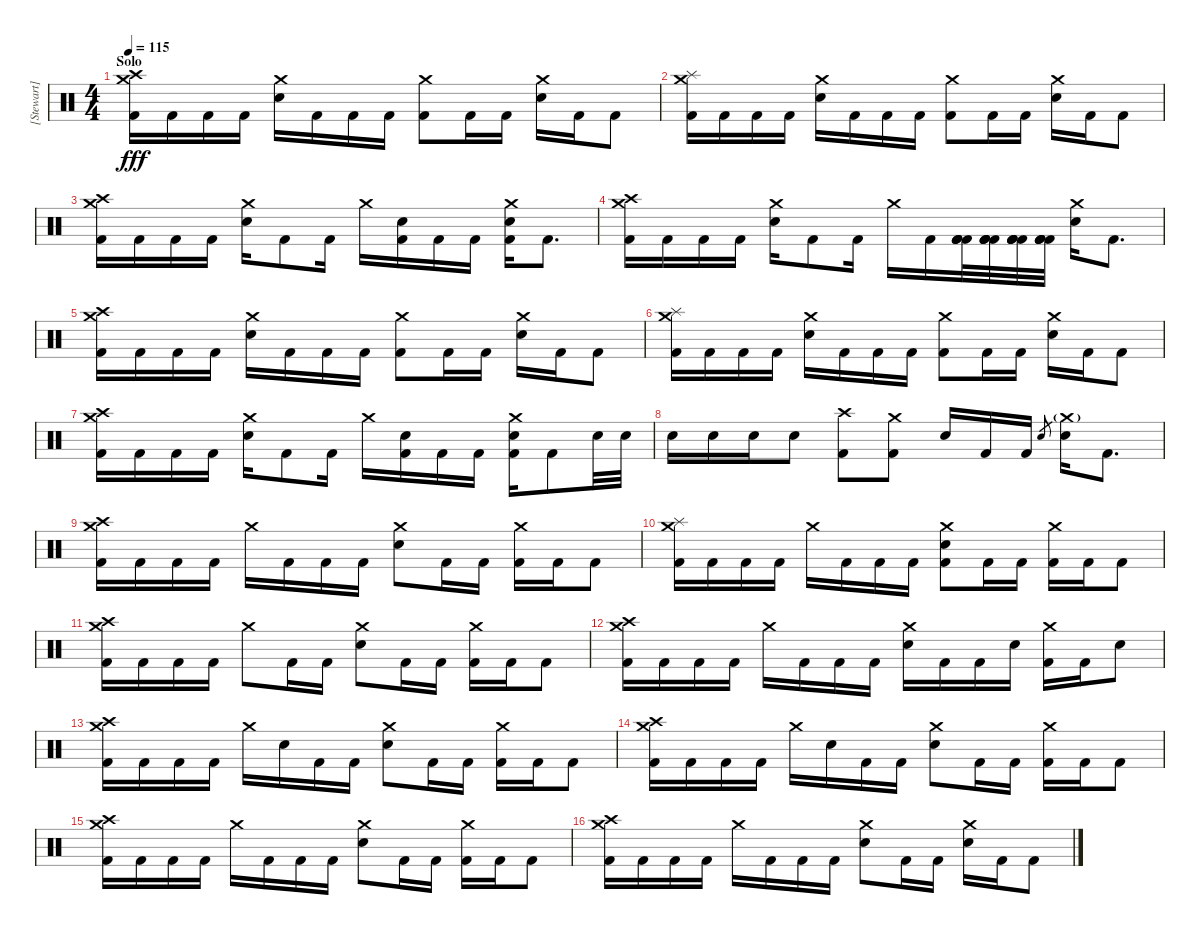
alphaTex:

\track ("[Stewart] Drums" "[Stewart] ") {instrument percussion}
\staff {score}
\articulation defaults
\ts (4 4)
\section ("" "Solo ")
\tempo 115
\clef neutral
\ks c
("Crash medium (hit)" "Crash high (hit)" "Kick (hit) 2").16{dy fff} "Kick (hit) 2".16 "Kick (hit) 2".16 "Kick (hit) 2".16 ("Crash medium (hit)" "Electric Snare (hit)").16 "Kick (hit) 2".16 "Kick (hit) 2".16 "Kick (hit) 2".16 ("Crash medium (hit)" "Kick (hit) 2").8 "Kick (hit) 2".16 "Kick (hit) 2".16 ("Crash medium (hit)" "Electric Snare (hit)").16 "Kick (hit) 2".16 "Kick (hit) 2".8 |
("Crash medium (hit)" "Splash (hit)" "Kick (hit) 2").16 "Kick (hit) 2".16 "Kick (hit) 2".16 "Kick (hit) 2".16 ("Crash medium (hit)" "Electric Snare (hit)").16 "Kick (hit) 2".16 "Kick (hit) 2".16 "Kick (hit) 2".16 ("Crash medium (hit)" "Kick (hit) 2").8 "Kick (hit) 2".16 "Kick (hit) 2".16 ("Crash medium (hit)" "Electric Snare (hit)").16 "Kick (hit) 2".16 "Kick (hit) 2".8 |
("Crash medium (hit)" "Crash high (hit)" "Kick (hit) 2").16 "Kick (hit) 2".16 "Kick (hit) 2".16 "Kick (hit) 2".16 ("Crash medium (hit)" "Electric Snare (hit)").16 "Kick (hit) 2".8 "Kick (hit) 2".16 "Crash medium (hit)".16 ("Electric Snare (hit)" "Kick (hit) 2").16 "Kick (hit) 2".16 "Kick (hit) 2".16 ("Crash medium (hit)" "Electric Snare (hit)" "Kick (hit) 2").16 "Kick (hit) 2".8{d} |
("Crash medium (hit)" "Crash high (hit)" "Kick (hit) 2").16 "Kick (hit) 2".16 "Kick (hit) 2".16 "Kick (hit) 2".16 ("Crash medium (hit)" "Electric Snare (hit)").16 "Kick (hit) 2".8 "Kick (hit) 2".16 "Crash medium (hit)".16 "Kick (hit) 2".16 ("Kick (hit) 2" "Kick (hit) 2" "Kick (hit) 2" "Kick (hit) 2").32 ("Kick (hit) 2" "Kick (hit) 2" "Kick (hit) 2" "Kick (hit) 2").32 ("Kick (hit) 2" "Kick (hit) 2" "Kick (hit) 2" "Kick (hit) 2").32 ("Kick (hit) 2" "Kick (hit) 2" "Kick (hit) 2" "Kick (hit) 2").32 ("Crash medium (hit)" "Electric Snare (hit)").16 "Kick (hit) 2".8{d} |
("Crash medium (hit)" "Crash high (hit)" "Kick (hit) 2").16 "Kick (hit) 2".16 "Kick (hit) 2".16 "Kick (hit) 2".16 ("Crash medium (hit)" "Electric Snare (hit)").16 "Kick (hit) 2".16 "Kick (hit) 2".16 "Kick (hit) 2".16 ("Crash medium (hit)" "Kick (hit) 2").8 "Kick (hit) 2".16 "Kick (hit) 2".16 ("Crash medium (hit)" "Electric Snare (hit)").16 "Kick (hit) 2".16 "Kick (hit) 2".8 |
("Crash medium (hit)" "Splash (hit)" "Kick (hit) 2").16 "Kick (hit) 2".16 "Kick (hit) 2".16 "Kick (hit) 2".16 ("Crash medium (hit)" "Electric Snare (hit)").16 "Kick (hit) 2".16 "Kick (hit) 2".16 "Kick (hit) 2".16 ("Crash medium (hit)" "Kick (hit) 2").8 "Kick (hit) 2".16 "Kick (hit) 2".16 ("Crash medium (hit)" "Electric Snare (hit)").16 "Kick (hit) 2".16 "Kick (hit) 2".8 |
("Crash medium (hit)" "Crash high (hit)" "Kick (hit) 2").16 "Kick (hit) 2".16 "Kick (hit) 2".16 "Kick (hit) 2".16 ("Crash medium (hit)" "Electric Snare (hit)").16 "Kick (hit) 2".8 "Kick (hit) 2".16 "Crash medium (hit)".16 ("Electric Snare (hit)" "Kick (hit) 2").16 "Kick (hit) 2".16 "Kick (hit) 2".16 ("Crash medium (hit)" "Electric Snare (hit)" "Kick (hit) 2").16 "Kick (hit) 2".8 "Electric Snare (hit)".32 "Electric Snare (hit)".32 |
"Electric Snare (hit)".16 "Electric Snare (hit)".16 "Electric Snare (hit)".16 "Electric Snare (hit)".8 ("Crash high (hit)" "Kick (hit) 2").8 ("Crash medium (hit)" "Kick (hit) 2").8 "Electric Snare (hit)".16 "Kick (hit) 2".16 "Kick (hit) 2".16 "Electric Snare (hit)".8{gr} ("Crash medium (hit)"{g} "Electric Snare (hit)").16 "Kick (hit) 2".8{d} |
("Crash medium (hit)" "Crash high (hit)" "Kick (hit) 2").16 "Kick (hit) 2".16 "Kick (hit) 2".16 "Kick (hit) 2".16 "Crash medium (hit)".16 "Kick (hit) 2".16 "Kick (hit) 2".16 "Kick (hit) 2".16 ("Crash medium (hit)" "Electric Snare (hit)").8 "Kick (hit) 2".16 "Kick (hit) 2".16 ("Crash medium (hit)" "Kick (hit) 2").16 "Kick (hit) 2".16 "Kick (hit) 2".8 |
("Crash medium (hit)" "Splash (hit)" "Kick (hit) 2").16 "Kick (hit) 2".16 "Kick (hit) 2".16 "Kick (hit) 2".16 "Crash medium (hit)".16 "Kick (hit) 2".16 "Kick (hit) 2".16 "Kick (hit) 2".16 ("Crash medium (hit)" "Electric Snare (hit)" "Kick (hit) 2").8 "Kick (hit) 2".16 "Kick (hit) 2".16 ("Crash medium (hit)" "Kick (hit) 2").16 "Kick (hit) 2".16 "Kick (hit) 2".8 |
("Crash medium (hit)" "Crash high (hit)" "Kick (hit) 2").16 "Kick (hit) 2".16 "Kick (hit) 2".16 "Kick (hit) 2".16 "Crash medium (hit)".8 "Kick (hit) 2".16 "Kick (hit) 2".16 ("Crash medium (hit)" "Electric Snare (hit)").8 "Kick (hit) 2".16 "Kick (hit) 2".16 ("Crash medium (hit)" "Kick (hit) 2").16 "Kick (hit) 2".16 "Kick (hit) 2".8 |
("Crash medium (hit)" "Crash high (hit)" "Kick (hit) 2").16 "Kick (hit) 2".16 "Kick (hit) 2".16 "Kick (hit) 2".16 "Crash medium (hit)".16 "Kick (hit) 2".16 "Kick (hit) 2".16 "Kick (hit) 2".16 ("Crash medium (hit)" "Electric Snare (hit)").16 "Kick (hit) 2".16 "Kick (hit) 2".16 "Electric Snare (hit)".16 ("Crash medium (hit)" "Kick (hit) 2").16 "Kick (hit) 2".16 "Electric Snare (hit)".8 |
("Crash medium (hit)" "Crash high (hit)" "Kick (hit) 2").16 "Kick (hit) 2".16 "Kick (hit) 2".16 "Kick (hit) 2".16 "Crash medium (hit)".16 "Electric Snare (hit)".16 "Kick (hit) 2".16 "Kick (hit) 2".16 ("Crash medium (hit)" "Electric Snare (hit)").8 "Kick (hit) 2".16 "Kick (hit) 2".16 ("Crash medium (hit)" "Kick (hit) 2").16 "Kick (hit) 2".16 "Kick (hit) 2".8 |
("Crash medium (hit)" "Crash high (hit)" "Kick (hit) 2").16 "Kick (hit) 2".16 "Kick (hit) 2".16 "Kick (hit) 2".16 "Crash medium (hit)".16 "Electric Snare (hit)".16 "Kick (hit) 2".16 "Kick (hit) 2".16 ("Crash medium (hit)" "Electric Snare (hit)").8 "Kick (hit) 2".16 "Kick (hit) 2".16 ("Crash medium (hit)" "Kick (hit) 2").16 "Kick (hit) 2".16 "Kick (hit) 2".8 |
("Crash medium (hit)" "Crash high (hit)" "Kick (hit) 2").16 "Kick (hit) 2".16 "Kick (hit) 2".16 "Kick (hit) 2".16 "Crash medium (hit)".16 "Kick (hit) 2".16 "Kick (hit) 2".16 "Kick (hit) 2".16 ("Crash medium (hit)" "Electric Snare (hit)").8 "Kick (hit) 2".16 "Kick (hit) 2".16 ("Crash medium (hit)" "Kick (hit) 2").16 "Kick (hit) 2".16 "Kick (hit) 2".8 |
("Crash medium (hit)" "Crash high (hit)" "Kick (hit) 2").16 "Kick (hit) 2".16 "Kick (hit) 2".16 "Kick (hit) 2".16 "Crash medium (hit)".16 "Kick (hit) 2".16 "Kick (hit) 2".16 "Kick (hit) 2".16 ("Crash medium (hit)" "Electric Snare (hit)").8 "Kick (hit) 2".16 "Kick (hit) 2".16 ("Crash medium (hit)" "Electric Snare (hit)").16 "Kick (hit) 2".16 "Kick (hit) 2".8
